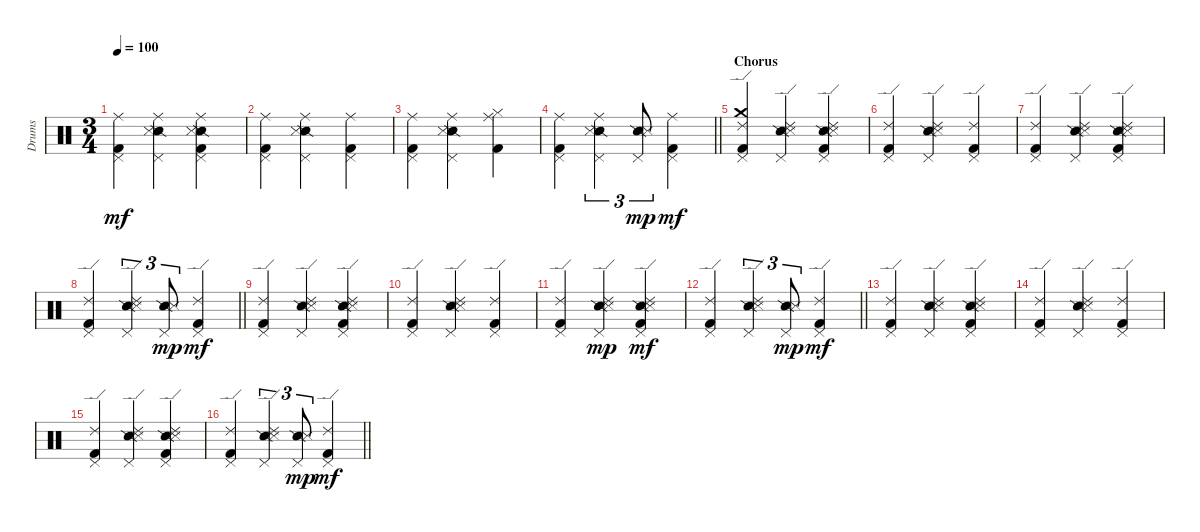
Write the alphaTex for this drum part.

\track ("Drums" "Drums") {instrument percussion}
\staff {score}
\articulation defaults
\ts (3 4)
\tempo 100
\clef neutral
\ks c
("Ride (middle)" "Pedal Hi-Hat (hit)" "Kick (hit) 2").4{dy mf} ("Ride (middle)" "Pedal Hi-Hat (hit)" "Snare (side stick) 2" "Snare (side stick) 3").4 ("Ride (middle)" "Pedal Hi-Hat (hit)" "Snare (side stick) 2" "Snare (side stick) 3" "Kick (hit) 2").4 |
("Ride (middle)" "Pedal Hi-Hat (hit)" "Kick (hit) 2").4 ("Ride (middle)" "Pedal Hi-Hat (hit)" "Snare (side stick) 2" "Snare (side stick) 3").4 ("Ride (middle)" "Pedal Hi-Hat (hit)" "Kick (hit) 2").4 |
("Ride (middle)" "Pedal Hi-Hat (hit)" "Kick (hit) 2").4 ("Ride (middle)" "Pedal Hi-Hat (hit)" "Snare (side stick) 2" "Snare (side stick) 3").4 ("Ride (middle)" "Hi-Hat (closed)" "Kick (hit) 2").4 |
\barLineRight lightlight
("Ride (middle)" "Pedal Hi-Hat (hit)" "Kick (hit) 2").4 ("Ride (middle)" "Pedal Hi-Hat (hit)" "Snare (side stick) 2" "Snare (side stick) 3").4{tu (3 2)} ("Pedal Hi-Hat (hit)" "Snare (side stick) 2" "Snare (side stick) 3").8{tu (3 2) dy mp} ("Ride (middle)" "Pedal Hi-Hat (hit)" "Kick (hit) 2").4{dy mf} |
\section ("" "Chorus")
("Crash medium (hit)" "Ride (edge) 2" "Pedal Hi-Hat (hit)" "Kick (hit) 2").4 ("Ride (edge) 2" "Pedal Hi-Hat (hit)" "Snare (side stick) 2" "Snare (side stick) 3").4 ("Ride (edge) 2" "Pedal Hi-Hat (hit)" "Snare (side stick) 2" "Snare (side stick) 3" "Kick (hit) 2").4 |
("Ride (edge) 2" "Pedal Hi-Hat (hit)" "Kick (hit) 2").4 ("Ride (edge) 2" "Pedal Hi-Hat (hit)" "Snare (side stick) 2" "Snare (side stick) 3").4 ("Ride (edge) 2" "Pedal Hi-Hat (hit)" "Kick (hit) 2").4 |
("Ride (edge) 2" "Pedal Hi-Hat (hit)" "Kick (hit) 2").4 ("Ride (edge) 2" "Pedal Hi-Hat (hit)" "Snare (side stick) 2" "Snare (side stick) 3").4 ("Ride (edge) 2" "Pedal Hi-Hat (hit)" "Snare (side stick) 2" "Snare (side stick) 3" "Kick (hit) 2").4 |
\barLineRight lightlight
("Ride (edge) 2" "Pedal Hi-Hat (hit)" "Kick (hit) 2").4 ("Ride (edge) 2" "Pedal Hi-Hat (hit)" "Snare (side stick) 2" "Snare (side stick) 3").4{tu (3 2)} ("Pedal Hi-Hat (hit)" "Snare (side stick) 2" "Snare (side stick) 3").8{tu (3 2) dy mp} ("Ride (edge) 2" "Pedal Hi-Hat (hit)" "Kick (hit) 2").4{dy mf} |
("Ride (edge) 2" "Pedal Hi-Hat (hit)" "Kick (hit) 2").4 ("Ride (edge) 2" "Pedal Hi-Hat (hit)" "Snare (side stick) 2" "Snare (side stick) 3").4 ("Ride (edge) 2" "Pedal Hi-Hat (hit)" "Snare (side stick) 2" "Snare (side stick) 3" "Kick (hit) 2").4 |
("Ride (edge) 2" "Pedal Hi-Hat (hit)" "Kick (hit) 2").4 ("Ride (edge) 2" "Pedal Hi-Hat (hit)" "Snare (side stick) 2" "Snare (side stick) 3").4 ("Ride (edge) 2" "Pedal Hi-Hat (hit)" "Kick (hit) 2").4 |
("Ride (edge) 2" "Pedal Hi-Hat (hit)" "Kick (hit) 2").4 ("Ride (edge) 2" "Pedal Hi-Hat (hit)" "Snare (side stick) 2" "Snare (side stick) 3").4{dy mp} ("Ride (edge) 2" "Pedal Hi-Hat (hit)" "Snare (side stick) 2" "Snare (side stick) 3" "Kick (hit) 2").4{dy mf} |
\barLineRight lightlight
("Ride (edge) 2" "Pedal Hi-Hat (hit)" "Kick (hit) 2").4 ("Ride (edge) 2" "Pedal Hi-Hat (hit)" "Snare (side stick) 2" "Snare (side stick) 3").4{tu (3 2)} ("Pedal Hi-Hat (hit)" "Snare (side stick) 2" "Snare (side stick) 3").8{tu (3 2) dy mp} ("Ride (edge) 2" "Pedal Hi-Hat (hit)" "Kick (hit) 2").4{dy mf} |
("Ride (edge) 2" "Pedal Hi-Hat (hit)" "Kick (hit) 2").4 ("Ride (edge) 2" "Pedal Hi-Hat (hit)" "Snare (side stick) 2" "Snare (side stick) 3").4 ("Ride (edge) 2" "Pedal Hi-Hat (hit)" "Snare (side stick) 2" "Snare (side stick) 3" "Kick (hit) 2").4 |
("Ride (edge) 2" "Pedal Hi-Hat (hit)" "Kick (hit) 2").4 ("Ride (edge) 2" "Pedal Hi-Hat (hit)" "Snare (side stick) 2" "Snare (side stick) 3").4 ("Ride (edge) 2" "Pedal Hi-Hat (hit)" "Kick (hit) 2").4 |
("Ride (edge) 2" "Pedal Hi-Hat (hit)" "Kick (hit) 2").4 ("Ride (edge) 2" "Pedal Hi-Hat (hit)" "Snare (side stick) 2" "Snare (side stick) 3").4 ("Ride (edge) 2" "Pedal Hi-Hat (hit)" "Snare (side stick) 2" "Snare (side stick) 3" "Kick (hit) 2").4 |
\barLineRight lightlight
("Ride (edge) 2" "Pedal Hi-Hat (hit)" "Kick (hit) 2").4 ("Ride (edge) 2" "Pedal Hi-Hat (hit)" "Snare (side stick) 2" "Snare (side stick) 3").4{tu (3 2)} ("Pedal Hi-Hat (hit)" "Snare (side stick) 2" "Snare (side stick) 3").8{tu (3 2) dy mp} ("Ride (edge) 2" "Pedal Hi-Hat (hit)" "Kick (hit) 2").4{dy mf}
